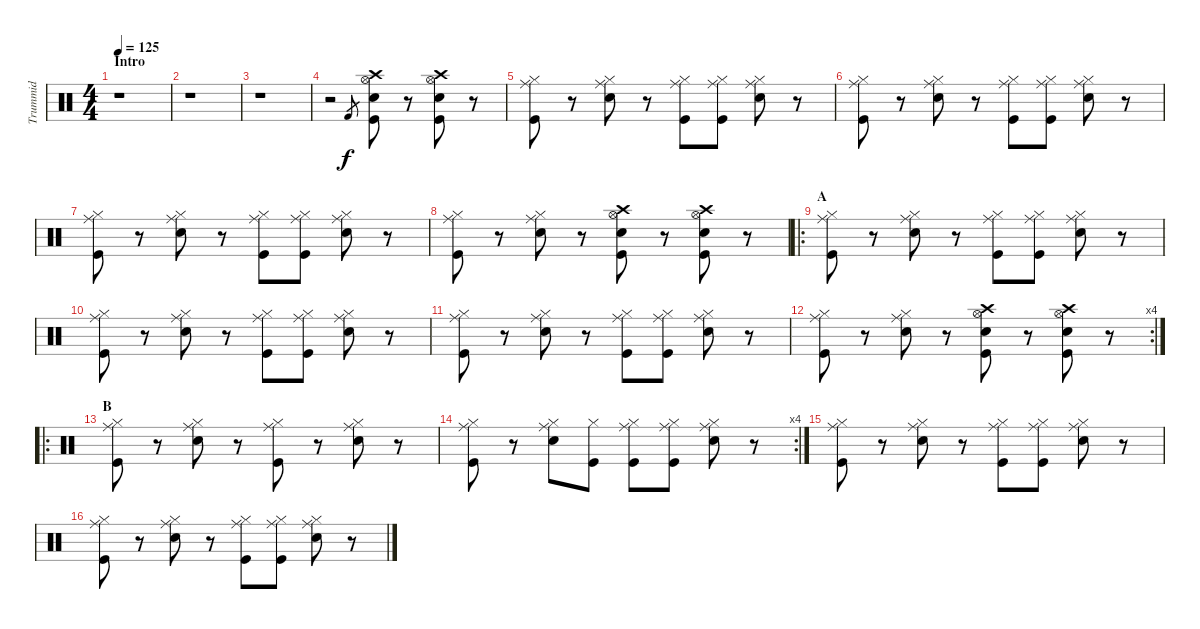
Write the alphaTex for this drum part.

\track ("Trummid" "Trummid") {instrument percussion}
\staff {score}
\articulation defaults
\ts (4 4)
\section ("" "Intro")
\tempo 125
\clef neutral
\ks c
r.1{dy f} |
r.1 |
r.1 |
r.2 "Kick (hit) 2".8{gr} ("Crash high (hit)" "Hi-Hat (open)" "Snare (hit) 2" "Kick (hit)").8 r.8 ("Crash high (hit)" "Hi-Hat (open)" "Snare (hit) 2" "Kick (hit)").8 r.8 |
("Hi-Hat (closed)" "Ride (middle)" "Kick (hit)").8 r.8 ("Hi-Hat (closed)" "Ride (middle)" "Snare (hit) 2").8 r.8 ("Hi-Hat (closed)" "Ride (middle)" "Kick (hit)").8 ("Hi-Hat (closed)" "Ride (middle)" "Kick (hit)").8 ("Hi-Hat (closed)" "Ride (middle)" "Snare (hit) 2").8 r.8 |
("Hi-Hat (closed)" "Ride (middle)" "Kick (hit)").8 r.8 ("Hi-Hat (closed)" "Ride (middle)" "Snare (hit) 2").8 r.8 ("Hi-Hat (closed)" "Ride (middle)" "Kick (hit)").8 ("Hi-Hat (closed)" "Ride (middle)" "Kick (hit)").8 ("Hi-Hat (closed)" "Ride (middle)" "Snare (hit) 2").8 r.8 |
("Hi-Hat (closed)" "Ride (middle)" "Kick (hit)").8 r.8 ("Hi-Hat (closed)" "Ride (middle)" "Snare (hit) 2").8 r.8 ("Hi-Hat (closed)" "Ride (middle)" "Kick (hit)").8 ("Hi-Hat (closed)" "Ride (middle)" "Kick (hit)").8 ("Hi-Hat (closed)" "Ride (middle)" "Snare (hit) 2").8 r.8 |
("Hi-Hat (closed)" "Ride (middle)" "Kick (hit)").8 r.8 ("Hi-Hat (closed)" "Ride (middle)" "Snare (hit) 2").8 r.8 ("Crash high (hit)" "Hi-Hat (open)" "Snare (hit) 2" "Kick (hit)").8 r.8 ("Crash high (hit)" "Hi-Hat (open)" "Snare (hit) 2" "Kick (hit)").8 r.8 |
\ro
\section ("" "A")
("Hi-Hat (closed)" "Ride (middle)" "Kick (hit)").8 r.8 ("Hi-Hat (closed)" "Ride (middle)" "Snare (hit) 2").8 r.8 ("Hi-Hat (closed)" "Ride (middle)" "Kick (hit)").8 ("Hi-Hat (closed)" "Ride (middle)" "Kick (hit)").8 ("Hi-Hat (closed)" "Ride (middle)" "Snare (hit) 2").8 r.8 |
("Hi-Hat (closed)" "Ride (middle)" "Kick (hit)").8 r.8 ("Hi-Hat (closed)" "Ride (middle)" "Snare (hit) 2").8 r.8 ("Hi-Hat (closed)" "Ride (middle)" "Kick (hit)").8 ("Hi-Hat (closed)" "Ride (middle)" "Kick (hit)").8 ("Hi-Hat (closed)" "Ride (middle)" "Snare (hit) 2").8 r.8 |
("Hi-Hat (closed)" "Ride (middle)" "Kick (hit)").8 r.8 ("Hi-Hat (closed)" "Ride (middle)" "Snare (hit) 2").8 r.8 ("Hi-Hat (closed)" "Ride (middle)" "Kick (hit)").8 ("Hi-Hat (closed)" "Ride (middle)" "Kick (hit)").8 ("Hi-Hat (closed)" "Ride (middle)" "Snare (hit) 2").8 r.8 |
\rc 4
("Hi-Hat (closed)" "Ride (middle)" "Kick (hit)").8 r.8 ("Hi-Hat (closed)" "Ride (middle)" "Snare (hit) 2").8 r.8 ("Crash high (hit)" "Hi-Hat (open)" "Snare (hit) 2" "Kick (hit)").8 r.8 ("Crash high (hit)" "Hi-Hat (open)" "Snare (hit) 2" "Kick (hit)").8 r.8 |
\ro
\section ("" "B")
("Hi-Hat (closed)" "Ride (middle)" "Kick (hit)").8 r.8 ("Hi-Hat (closed)" "Ride (middle)" "Snare (hit) 2").8 r.8 ("Hi-Hat (closed)" "Ride (middle)" "Kick (hit)").8 r.8 ("Hi-Hat (closed)" "Ride (middle)" "Snare (hit) 2").8 r.8 |
\rc 4
("Hi-Hat (closed)" "Ride (middle)" "Kick (hit)").8 r.8 ("Hi-Hat (closed)" "Ride (middle)" "Snare (hit) 2").8 ("Hi-Hat (closed)" "Kick (hit)").8 ("Hi-Hat (closed)" "Ride (middle)" "Kick (hit)").8 ("Hi-Hat (closed)" "Ride (middle)" "Kick (hit)").8 ("Hi-Hat (closed)" "Ride (middle)" "Snare (hit) 2").8 r.8 |
("Hi-Hat (closed)" "Ride (middle)" "Kick (hit)").8 r.8 ("Hi-Hat (closed)" "Ride (middle)" "Snare (hit) 2").8 r.8 ("Hi-Hat (closed)" "Ride (middle)" "Kick (hit)").8 ("Hi-Hat (closed)" "Ride (middle)" "Kick (hit)").8 ("Hi-Hat (closed)" "Ride (middle)" "Snare (hit) 2").8 r.8 |
("Hi-Hat (closed)" "Ride (middle)" "Kick (hit)").8 r.8 ("Hi-Hat (closed)" "Ride (middle)" "Snare (hit) 2").8 r.8 ("Hi-Hat (closed)" "Ride (middle)" "Kick (hit)").8 ("Hi-Hat (closed)" "Ride (middle)" "Kick (hit)").8 ("Hi-Hat (closed)" "Ride (middle)" "Snare (hit) 2").8 r.8
